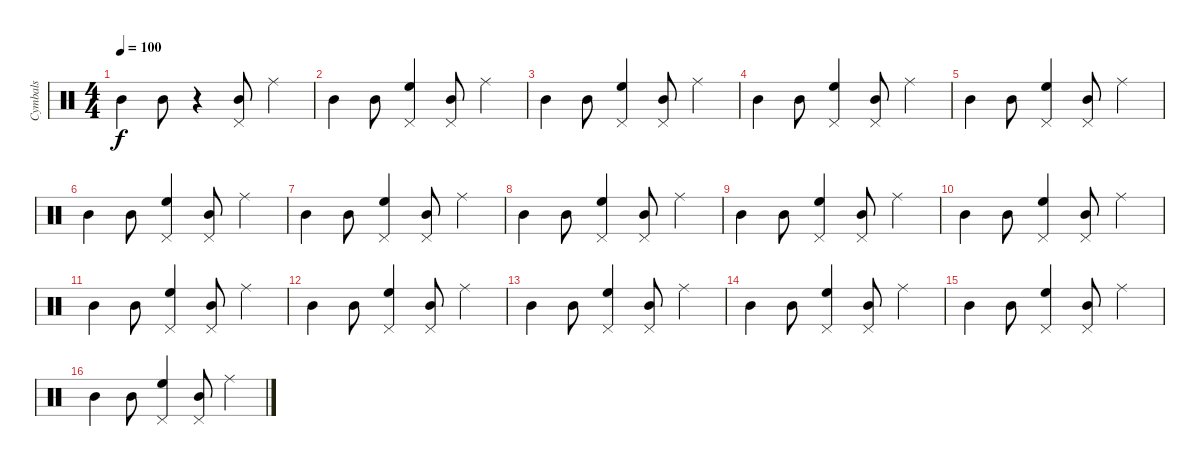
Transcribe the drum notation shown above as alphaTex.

\track ("Cymbals" "Cymbals") {instrument percussion}
\staff {score}
\articulation defaults
\ts (4 4)
\tempo 100
\clef neutral
\ks c "Mid Tom (hit)".4{dy f} "Mid Tom (hit)".8
r.4 ("Mid Tom (hit)" "Pedal Hi-Hat (hit)").8 "Ride (middle)".4 |
"Mid Tom (hit)".4 "Mid Tom (hit)".8 ("High Floor Tom (hit)" "Pedal Hi-Hat (hit)").4 ("Mid Tom (hit)" "Pedal Hi-Hat (hit)").8 "Ride (middle)".4 |
"Mid Tom (hit)".4 "Mid Tom (hit)".8 ("High Floor Tom (hit)" "Pedal Hi-Hat (hit)").4 ("Mid Tom (hit)" "Pedal Hi-Hat (hit)").8 "Ride (middle)".4 |
"Mid Tom (hit)".4 "Mid Tom (hit)".8 ("High Floor Tom (hit)" "Pedal Hi-Hat (hit)").4 ("Mid Tom (hit)" "Pedal Hi-Hat (hit)").8 "Ride (middle)".4 |
"Mid Tom (hit)".4 "Mid Tom (hit)".8 ("High Floor Tom (hit)" "Pedal Hi-Hat (hit)").4 ("Mid Tom (hit)" "Pedal Hi-Hat (hit)").8 "Ride (middle)".4 |
"Mid Tom (hit)".4 "Mid Tom (hit)".8 ("High Floor Tom (hit)" "Pedal Hi-Hat (hit)").4 ("Mid Tom (hit)" "Pedal Hi-Hat (hit)").8 "Ride (middle)".4 |
"Mid Tom (hit)".4 "Mid Tom (hit)".8 ("High Floor Tom (hit)" "Pedal Hi-Hat (hit)").4 ("Mid Tom (hit)" "Pedal Hi-Hat (hit)").8 "Ride (middle)".4 |
"Mid Tom (hit)".4 "Mid Tom (hit)".8 ("High Floor Tom (hit)" "Pedal Hi-Hat (hit)").4 ("Mid Tom (hit)" "Pedal Hi-Hat (hit)").8 "Ride (middle)".4 |
"Mid Tom (hit)".4 "Mid Tom (hit)".8 ("High Floor Tom (hit)" "Pedal Hi-Hat (hit)").4 ("Mid Tom (hit)" "Pedal Hi-Hat (hit)").8 "Ride (middle)".4 |
"Mid Tom (hit)".4 "Mid Tom (hit)".8 ("High Floor Tom (hit)" "Pedal Hi-Hat (hit)").4 ("Mid Tom (hit)" "Pedal Hi-Hat (hit)").8 "Ride (middle)".4 |
"Mid Tom (hit)".4 "Mid Tom (hit)".8 ("High Floor Tom (hit)" "Pedal Hi-Hat (hit)").4 ("Mid Tom (hit)" "Pedal Hi-Hat (hit)").8 "Ride (middle)".4 |
"Mid Tom (hit)".4 "Mid Tom (hit)".8 ("High Floor Tom (hit)" "Pedal Hi-Hat (hit)").4 ("Mid Tom (hit)" "Pedal Hi-Hat (hit)").8 "Ride (middle)".4 |
"Mid Tom (hit)".4 "Mid Tom (hit)".8 ("High Floor Tom (hit)" "Pedal Hi-Hat (hit)").4 ("Mid Tom (hit)" "Pedal Hi-Hat (hit)").8 "Ride (middle)".4 |
"Mid Tom (hit)".4 "Mid Tom (hit)".8 ("High Floor Tom (hit)" "Pedal Hi-Hat (hit)").4 ("Mid Tom (hit)" "Pedal Hi-Hat (hit)").8 "Ride (middle)".4 |
"Mid Tom (hit)".4 "Mid Tom (hit)".8 ("High Floor Tom (hit)" "Pedal Hi-Hat (hit)").4 ("Mid Tom (hit)" "Pedal Hi-Hat (hit)").8 "Ride (middle)".4 |
"Mid Tom (hit)".4 "Mid Tom (hit)".8 ("High Floor Tom (hit)" "Pedal Hi-Hat (hit)").4 ("Mid Tom (hit)" "Pedal Hi-Hat (hit)").8 "Ride (middle)".4
